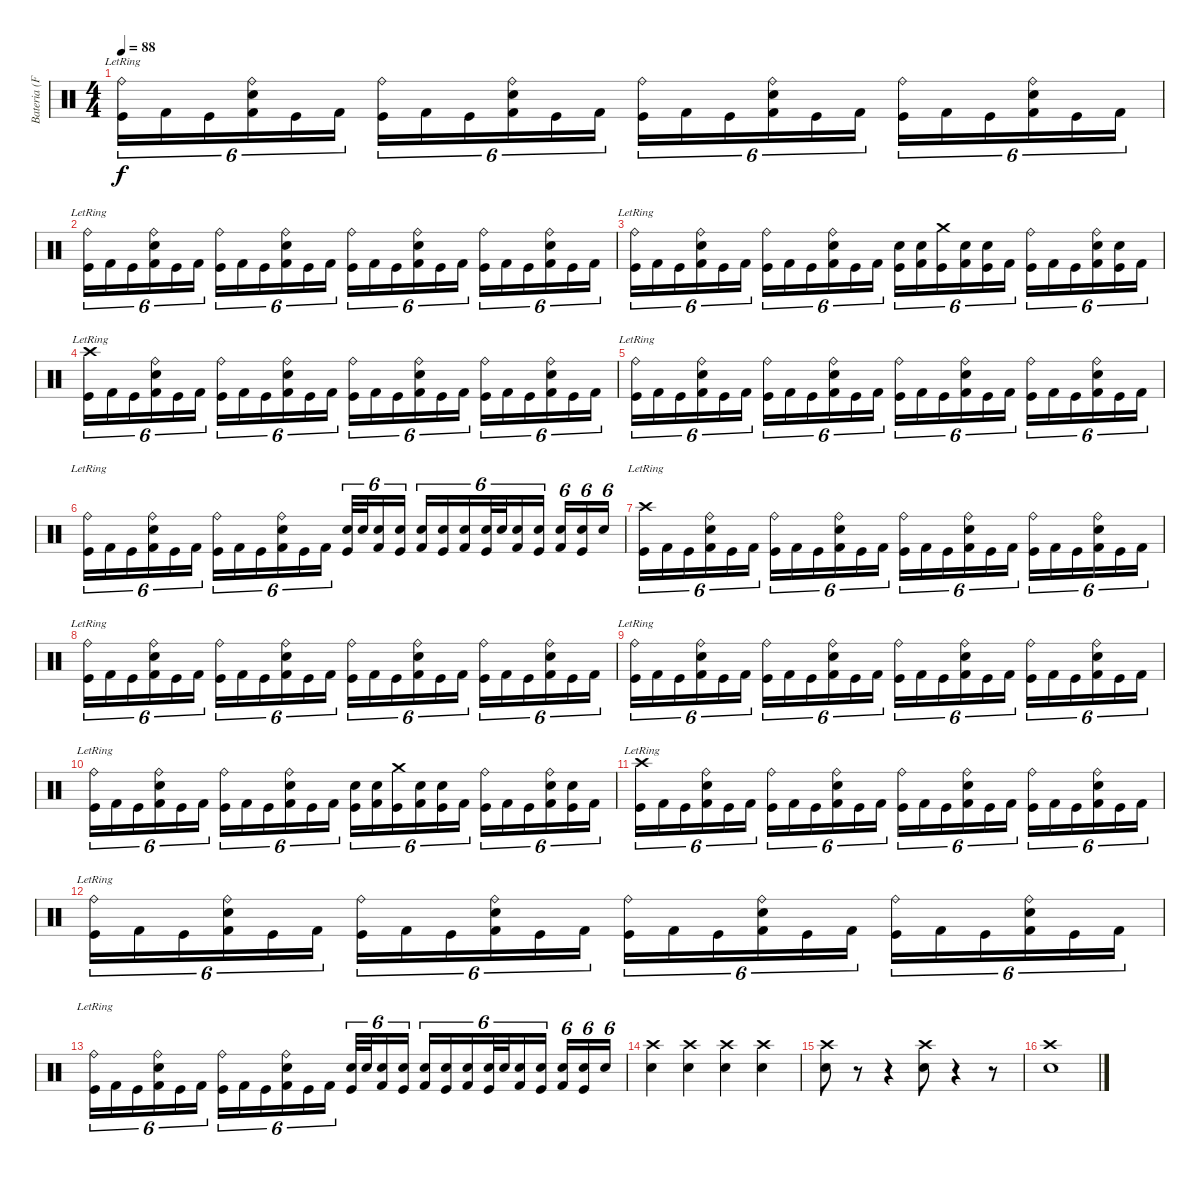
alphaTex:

\track ("Bateria (Fernando Scarcella)" "Bateria (F") {instrument percussion}
\staff {score}
\articulation defaults
\ts (4 4)
\tempo 88
\clef neutral
\ks c
("Ride (bell)"{lr} "Kick (hit)").16{tu (6 4) dy f} "Kick (hit) 2".16{tu (6 4)} "Kick (hit)".16{tu (6 4)} ("Ride (bell)" "Snare (hit) 2" "Kick (hit) 2").16{tu (6 4)} "Kick (hit)".16{tu (6 4)} "Kick (hit) 2".16{tu (6 4)} ("Ride (bell)" "Kick (hit)").16{tu (6 4)} "Kick (hit) 2".16{tu (6 4)} "Kick (hit)".16{tu (6 4)} ("Ride (bell)" "Snare (hit) 2" "Kick (hit) 2").16{tu (6 4)} "Kick (hit)".16{tu (6 4)} "Kick (hit) 2".16{tu (6 4)} ("Ride (bell)" "Kick (hit)").16{tu (6 4)} "Kick (hit) 2".16{tu (6 4)} "Kick (hit)".16{tu (6 4)} ("Ride (bell)" "Snare (hit) 2" "Kick (hit) 2").16{tu (6 4)} "Kick (hit)".16{tu (6 4)} "Kick (hit) 2".16{tu (6 4)} ("Ride (bell)" "Kick (hit)").16{tu (6 4)} "Kick (hit) 2".16{tu (6 4)} "Kick (hit)".16{tu (6 4)} ("Ride (bell)" "Snare (hit) 2" "Kick (hit) 2").16{tu (6 4)} "Kick (hit)".16{tu (6 4)} "Kick (hit) 2".16{tu (6 4)} |
("Ride (bell)"{lr} "Kick (hit)").16{tu (6 4)} "Kick (hit) 2".16{tu (6 4)} "Kick (hit)".16{tu (6 4)} ("Ride (bell)" "Snare (hit) 2" "Kick (hit) 2").16{tu (6 4)} "Kick (hit)".16{tu (6 4)} "Kick (hit) 2".16{tu (6 4)} ("Ride (bell)" "Kick (hit)").16{tu (6 4)} "Kick (hit) 2".16{tu (6 4)} "Kick (hit)".16{tu (6 4)} ("Ride (bell)" "Snare (hit) 2" "Kick (hit) 2").16{tu (6 4)} "Kick (hit)".16{tu (6 4)} "Kick (hit) 2".16{tu (6 4)} ("Ride (bell)" "Kick (hit)").16{tu (6 4)} "Kick (hit) 2".16{tu (6 4)} "Kick (hit)".16{tu (6 4)} ("Ride (bell)" "Snare (hit) 2" "Kick (hit) 2").16{tu (6 4)} "Kick (hit)".16{tu (6 4)} "Kick (hit) 2".16{tu (6 4)} ("Ride (bell)" "Kick (hit)").16{tu (6 4)} "Kick (hit) 2".16{tu (6 4)} "Kick (hit)".16{tu (6 4)} ("Ride (bell)" "Snare (hit) 2" "Kick (hit) 2").16{tu (6 4)} "Kick (hit)".16{tu (6 4)} "Kick (hit) 2".16{tu (6 4)} |
("Ride (bell)"{lr} "Kick (hit)").16{tu (6 4)} "Kick (hit) 2".16{tu (6 4)} "Kick (hit)".16{tu (6 4)} ("Ride (bell)" "Snare (hit) 2" "Kick (hit) 2").16{tu (6 4)} "Kick (hit)".16{tu (6 4)} "Kick (hit) 2".16{tu (6 4)} ("Ride (bell)" "Kick (hit)").16{tu (6 4)} "Kick (hit) 2".16{tu (6 4)} "Kick (hit)".16{tu (6 4)} ("Ride (bell)" "Snare (hit) 2" "Kick (hit) 2").16{tu (6 4)} "Kick (hit)".16{tu (6 4)} "Kick (hit) 2".16{tu (6 4)} ("Snare (hit) 2" "Kick (hit)").16{tu (6 4)} ("Snare (hit) 2" "Kick (hit) 2").16{tu (6 4)} ("Crash medium (hit)" "Kick (hit)").16{tu (6 4)} ("Snare (hit) 2" "Kick (hit) 2").16{tu (6 4)} ("Snare (hit) 2" "Kick (hit)").16{tu (6 4)} "Kick (hit) 2".16{tu (6 4)} ("Ride (bell)" "Kick (hit)").16{tu (6 4)} "Kick (hit) 2".16{tu (6 4)} "Kick (hit)".16{tu (6 4)} ("Ride (bell)" "Snare (hit) 2" "Kick (hit) 2").16{tu (6 4)} ("Snare (hit) 2" "Kick (hit)").16{tu (6 4)} "Kick (hit) 2".16{tu (6 4)} |
("Crash high (hit)"{lr} "Kick (hit)").16{tu (6 4)} "Kick (hit) 2".16{tu (6 4)} "Kick (hit)".16{tu (6 4)} ("Ride (bell)" "Snare (hit) 2" "Kick (hit) 2").16{tu (6 4)} "Kick (hit)".16{tu (6 4)} "Kick (hit) 2".16{tu (6 4)} ("Ride (bell)" "Kick (hit)").16{tu (6 4)} "Kick (hit) 2".16{tu (6 4)} "Kick (hit)".16{tu (6 4)} ("Ride (bell)" "Snare (hit) 2" "Kick (hit) 2").16{tu (6 4)} "Kick (hit)".16{tu (6 4)} "Kick (hit) 2".16{tu (6 4)} ("Ride (bell)" "Kick (hit)").16{tu (6 4)} "Kick (hit) 2".16{tu (6 4)} "Kick (hit)".16{tu (6 4)} ("Ride (bell)" "Snare (hit) 2" "Kick (hit) 2").16{tu (6 4)} "Kick (hit)".16{tu (6 4)} "Kick (hit) 2".16{tu (6 4)} ("Ride (bell)" "Kick (hit)").16{tu (6 4)} "Kick (hit) 2".16{tu (6 4)} "Kick (hit)".16{tu (6 4)} ("Ride (bell)" "Snare (hit) 2" "Kick (hit) 2").16{tu (6 4)} "Kick (hit)".16{tu (6 4)} "Kick (hit) 2".16{tu (6 4)} |
("Ride (bell)"{lr} "Kick (hit)").16{tu (6 4)} "Kick (hit) 2".16{tu (6 4)} "Kick (hit)".16{tu (6 4)} ("Ride (bell)" "Snare (hit) 2" "Kick (hit) 2").16{tu (6 4)} "Kick (hit)".16{tu (6 4)} "Kick (hit) 2".16{tu (6 4)} ("Ride (bell)" "Kick (hit)").16{tu (6 4)} "Kick (hit) 2".16{tu (6 4)} "Kick (hit)".16{tu (6 4)} ("Ride (bell)" "Snare (hit) 2" "Kick (hit) 2").16{tu (6 4)} "Kick (hit)".16{tu (6 4)} "Kick (hit) 2".16{tu (6 4)} ("Ride (bell)" "Kick (hit)").16{tu (6 4)} "Kick (hit) 2".16{tu (6 4)} "Kick (hit)".16{tu (6 4)} ("Ride (bell)" "Snare (hit) 2" "Kick (hit) 2").16{tu (6 4)} "Kick (hit)".16{tu (6 4)} "Kick (hit) 2".16{tu (6 4)} ("Ride (bell)" "Kick (hit)").16{tu (6 4)} "Kick (hit) 2".16{tu (6 4)} "Kick (hit)".16{tu (6 4)} ("Ride (bell)" "Snare (hit) 2" "Kick (hit) 2").16{tu (6 4)} "Kick (hit)".16{tu (6 4)} "Kick (hit) 2".16{tu (6 4)} |
("Ride (bell)"{lr} "Kick (hit)").16{tu (6 4)} "Kick (hit) 2".16{tu (6 4)} "Kick (hit)".16{tu (6 4)} ("Ride (bell)" "Snare (hit) 2" "Kick (hit) 2").16{tu (6 4)} "Kick (hit)".16{tu (6 4)} "Kick (hit) 2".16{tu (6 4)} ("Ride (bell)" "Kick (hit)").16{tu (6 4)} "Kick (hit) 2".16{tu (6 4)} "Kick (hit)".16{tu (6 4)} ("Ride (bell)" "Snare (hit) 2" "Kick (hit) 2").16{tu (6 4)} "Kick (hit)".16{tu (6 4)} "Kick (hit) 2".16{tu (6 4)} ("Snare (hit) 2" "Kick (hit)").32{tu (6 4)} "Snare (hit) 2".32{tu (6 4)} ("Snare (hit) 2" "Kick (hit) 2").16{tu (6 4)} ("Snare (hit) 2" "Kick (hit)").16{tu (6 4)} ("Snare (hit) 2" "Kick (hit) 2").16{tu (6 4)} ("Snare (hit) 2" "Kick (hit)").16{tu (6 4)} ("Snare (hit) 2" "Kick (hit) 2").16{tu (6 4)} ("Snare (hit) 2" "Kick (hit)").32{tu (6 4)} "Snare (hit) 2".32{tu (6 4)} ("Snare (hit) 2" "Kick (hit) 2").16{tu (6 4)} ("Snare (hit) 2" "Kick (hit)").16{tu (6 4)} ("Snare (hit) 2" "Kick (hit) 2").16{tu (6 4)} ("Snare (hit) 2" "Kick (hit)").16{tu (6 4)} "Snare (hit) 2".16{tu (6 4)} |
("Crash high (hit)"{lr} "Kick (hit)").16{tu (6 4)} "Kick (hit) 2".16{tu (6 4)} "Kick (hit)".16{tu (6 4)} ("Ride (bell)" "Snare (hit) 2" "Kick (hit) 2").16{tu (6 4)} "Kick (hit)".16{tu (6 4)} "Kick (hit) 2".16{tu (6 4)} ("Ride (bell)" "Kick (hit)").16{tu (6 4)} "Kick (hit) 2".16{tu (6 4)} "Kick (hit)".16{tu (6 4)} ("Ride (bell)" "Snare (hit) 2" "Kick (hit) 2").16{tu (6 4)} "Kick (hit)".16{tu (6 4)} "Kick (hit) 2".16{tu (6 4)} ("Ride (bell)" "Kick (hit)").16{tu (6 4)} "Kick (hit) 2".16{tu (6 4)} "Kick (hit)".16{tu (6 4)} ("Ride (bell)" "Snare (hit) 2" "Kick (hit) 2").16{tu (6 4)} "Kick (hit)".16{tu (6 4)} "Kick (hit) 2".16{tu (6 4)} ("Ride (bell)" "Kick (hit)").16{tu (6 4)} "Kick (hit) 2".16{tu (6 4)} "Kick (hit)".16{tu (6 4)} ("Ride (bell)" "Snare (hit) 2" "Kick (hit) 2").16{tu (6 4)} "Kick (hit)".16{tu (6 4)} "Kick (hit) 2".16{tu (6 4)} |
("Ride (bell)"{lr} "Kick (hit)").16{tu (6 4)} "Kick (hit) 2".16{tu (6 4)} "Kick (hit)".16{tu (6 4)} ("Ride (bell)" "Snare (hit) 2" "Kick (hit) 2").16{tu (6 4)} "Kick (hit)".16{tu (6 4)} "Kick (hit) 2".16{tu (6 4)} ("Ride (bell)" "Kick (hit)").16{tu (6 4)} "Kick (hit) 2".16{tu (6 4)} "Kick (hit)".16{tu (6 4)} ("Ride (bell)" "Snare (hit) 2" "Kick (hit) 2").16{tu (6 4)} "Kick (hit)".16{tu (6 4)} "Kick (hit) 2".16{tu (6 4)} ("Ride (bell)" "Kick (hit)").16{tu (6 4)} "Kick (hit) 2".16{tu (6 4)} "Kick (hit)".16{tu (6 4)} ("Ride (bell)" "Snare (hit) 2" "Kick (hit) 2").16{tu (6 4)} "Kick (hit)".16{tu (6 4)} "Kick (hit) 2".16{tu (6 4)} ("Ride (bell)" "Kick (hit)").16{tu (6 4)} "Kick (hit) 2".16{tu (6 4)} "Kick (hit)".16{tu (6 4)} ("Ride (bell)" "Snare (hit) 2" "Kick (hit) 2").16{tu (6 4)} "Kick (hit)".16{tu (6 4)} "Kick (hit) 2".16{tu (6 4)} |
("Ride (bell)"{lr} "Kick (hit)").16{tu (6 4)} "Kick (hit) 2".16{tu (6 4)} "Kick (hit)".16{tu (6 4)} ("Ride (bell)" "Snare (hit) 2" "Kick (hit) 2").16{tu (6 4)} "Kick (hit)".16{tu (6 4)} "Kick (hit) 2".16{tu (6 4)} ("Ride (bell)" "Kick (hit)").16{tu (6 4)} "Kick (hit) 2".16{tu (6 4)} "Kick (hit)".16{tu (6 4)} ("Ride (bell)" "Snare (hit) 2" "Kick (hit) 2").16{tu (6 4)} "Kick (hit)".16{tu (6 4)} "Kick (hit) 2".16{tu (6 4)} ("Ride (bell)" "Kick (hit)").16{tu (6 4)} "Kick (hit) 2".16{tu (6 4)} "Kick (hit)".16{tu (6 4)} ("Ride (bell)" "Snare (hit) 2" "Kick (hit) 2").16{tu (6 4)} "Kick (hit)".16{tu (6 4)} "Kick (hit) 2".16{tu (6 4)} ("Ride (bell)" "Kick (hit)").16{tu (6 4)} "Kick (hit) 2".16{tu (6 4)} "Kick (hit)".16{tu (6 4)} ("Ride (bell)" "Snare (hit) 2" "Kick (hit) 2").16{tu (6 4)} "Kick (hit)".16{tu (6 4)} "Kick (hit) 2".16{tu (6 4)} |
("Ride (bell)"{lr} "Kick (hit)").16{tu (6 4)} "Kick (hit) 2".16{tu (6 4)} "Kick (hit)".16{tu (6 4)} ("Ride (bell)" "Snare (hit) 2" "Kick (hit) 2").16{tu (6 4)} "Kick (hit)".16{tu (6 4)} "Kick (hit) 2".16{tu (6 4)} ("Ride (bell)" "Kick (hit)").16{tu (6 4)} "Kick (hit) 2".16{tu (6 4)} "Kick (hit)".16{tu (6 4)} ("Ride (bell)" "Snare (hit) 2" "Kick (hit) 2").16{tu (6 4)} "Kick (hit)".16{tu (6 4)} "Kick (hit) 2".16{tu (6 4)} ("Snare (hit) 2" "Kick (hit)").16{tu (6 4)} ("Snare (hit) 2" "Kick (hit) 2").16{tu (6 4)} ("Crash medium (hit)" "Kick (hit)").16{tu (6 4)} ("Snare (hit) 2" "Kick (hit) 2").16{tu (6 4)} ("Snare (hit) 2" "Kick (hit)").16{tu (6 4)} "Kick (hit) 2".16{tu (6 4)} ("Ride (bell)" "Kick (hit)").16{tu (6 4)} "Kick (hit) 2".16{tu (6 4)} "Kick (hit)".16{tu (6 4)} ("Ride (bell)" "Snare (hit) 2" "Kick (hit) 2").16{tu (6 4)} ("Snare (hit) 2" "Kick (hit)").16{tu (6 4)} "Kick (hit) 2".16{tu (6 4)} |
("Crash high (hit)"{lr} "Kick (hit)").16{tu (6 4)} "Kick (hit) 2".16{tu (6 4)} "Kick (hit)".16{tu (6 4)} ("Ride (bell)" "Snare (hit) 2" "Kick (hit) 2").16{tu (6 4)} "Kick (hit)".16{tu (6 4)} "Kick (hit) 2".16{tu (6 4)} ("Ride (bell)" "Kick (hit)").16{tu (6 4)} "Kick (hit) 2".16{tu (6 4)} "Kick (hit)".16{tu (6 4)} ("Ride (bell)" "Snare (hit) 2" "Kick (hit) 2").16{tu (6 4)} "Kick (hit)".16{tu (6 4)} "Kick (hit) 2".16{tu (6 4)} ("Ride (bell)" "Kick (hit)").16{tu (6 4)} "Kick (hit) 2".16{tu (6 4)} "Kick (hit)".16{tu (6 4)} ("Ride (bell)" "Snare (hit) 2" "Kick (hit) 2").16{tu (6 4)} "Kick (hit)".16{tu (6 4)} "Kick (hit) 2".16{tu (6 4)} ("Ride (bell)" "Kick (hit)").16{tu (6 4)} "Kick (hit) 2".16{tu (6 4)} "Kick (hit)".16{tu (6 4)} ("Ride (bell)" "Snare (hit) 2" "Kick (hit) 2").16{tu (6 4)} "Kick (hit)".16{tu (6 4)} "Kick (hit) 2".16{tu (6 4)} |
("Ride (bell)"{lr} "Kick (hit)").16{tu (6 4)} "Kick (hit) 2".16{tu (6 4)} "Kick (hit)".16{tu (6 4)} ("Ride (bell)" "Snare (hit) 2" "Kick (hit) 2").16{tu (6 4)} "Kick (hit)".16{tu (6 4)} "Kick (hit) 2".16{tu (6 4)} ("Ride (bell)" "Kick (hit)").16{tu (6 4)} "Kick (hit) 2".16{tu (6 4)} "Kick (hit)".16{tu (6 4)} ("Ride (bell)" "Snare (hit) 2" "Kick (hit) 2").16{tu (6 4)} "Kick (hit)".16{tu (6 4)} "Kick (hit) 2".16{tu (6 4)} ("Ride (bell)" "Kick (hit)").16{tu (6 4)} "Kick (hit) 2".16{tu (6 4)} "Kick (hit)".16{tu (6 4)} ("Ride (bell)" "Snare (hit) 2" "Kick (hit) 2").16{tu (6 4)} "Kick (hit)".16{tu (6 4)} "Kick (hit) 2".16{tu (6 4)} ("Ride (bell)" "Kick (hit)").16{tu (6 4)} "Kick (hit) 2".16{tu (6 4)} "Kick (hit)".16{tu (6 4)} ("Ride (bell)" "Snare (hit) 2" "Kick (hit) 2").16{tu (6 4)} "Kick (hit)".16{tu (6 4)} "Kick (hit) 2".16{tu (6 4)} |
("Ride (bell)"{lr} "Kick (hit)").16{tu (6 4)} "Kick (hit) 2".16{tu (6 4)} "Kick (hit)".16{tu (6 4)} ("Ride (bell)" "Snare (hit) 2" "Kick (hit) 2").16{tu (6 4)} "Kick (hit)".16{tu (6 4)} "Kick (hit) 2".16{tu (6 4)} ("Ride (bell)" "Kick (hit)").16{tu (6 4)} "Kick (hit) 2".16{tu (6 4)} "Kick (hit)".16{tu (6 4)} ("Ride (bell)" "Snare (hit) 2" "Kick (hit) 2").16{tu (6 4)} "Kick (hit)".16{tu (6 4)} "Kick (hit) 2".16{tu (6 4)} ("Snare (hit) 2" "Kick (hit)").32{tu (6 4)} "Snare (hit) 2".32{tu (6 4)} ("Snare (hit) 2" "Kick (hit) 2").16{tu (6 4)} ("Snare (hit) 2" "Kick (hit)").16{tu (6 4)} ("Snare (hit) 2" "Kick (hit) 2").16{tu (6 4)} ("Snare (hit) 2" "Kick (hit)").16{tu (6 4)} ("Snare (hit) 2" "Kick (hit) 2").16{tu (6 4)} ("Snare (hit) 2" "Kick (hit)").32{tu (6 4)} "Snare (hit) 2".32{tu (6 4)} ("Snare (hit) 2" "Kick (hit) 2").16{tu (6 4)} ("Snare (hit) 2" "Kick (hit)").16{tu (6 4)} ("Snare (hit) 2" "Kick (hit) 2").16{tu (6 4)} ("Snare (hit) 2" "Kick (hit)").16{tu (6 4)} "Snare (hit) 2".16{tu (6 4)} |
("Crash high (hit)" "Snare (hit) 2").4 ("Crash high (hit)" "Snare (hit) 2").4 ("Crash high (hit)" "Snare (hit) 2").4 ("Crash high (hit)" "Snare (hit) 2").4 |
("Crash high (hit)" "Snare (hit) 2").8 r.8 r.4 ("Crash high (hit)" "Snare (hit) 2").8 r.4 r.8 |
("Crash high (hit)" "Snare (hit) 2").1
